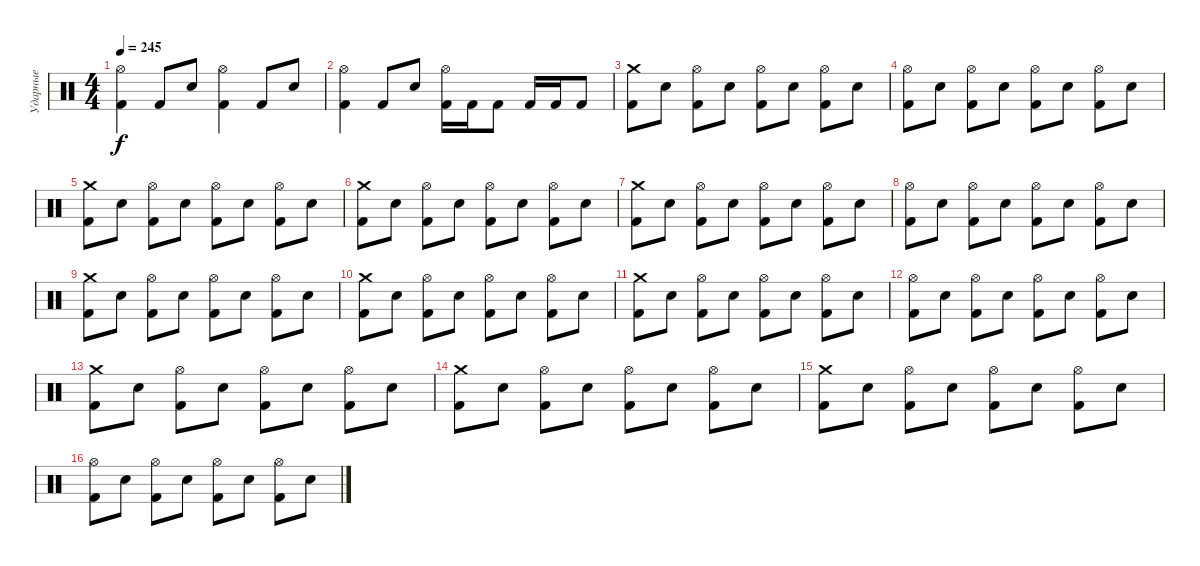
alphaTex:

\track ("Ударные" "Ударные") {instrument percussion}
\staff {score}
\articulation defaults
\ts (4 4)
\tempo 245
\clef neutral
\ks c
("Hi-Hat (open)" "Kick (hit) 2").4{dy f} "Kick (hit) 2".8 "Snare (hit) 2".8 ("Hi-Hat (open)" "Kick (hit) 2").4 "Kick (hit) 2".8 "Snare (hit) 2".8 |
("Hi-Hat (open)" "Kick (hit) 2").4 "Kick (hit) 2".8 "Snare (hit) 2".8 ("Hi-Hat (open)" "Kick (hit) 2").16 "Kick (hit) 2".16 "Kick (hit) 2".8 "Kick (hit) 2".16 "Kick (hit) 2".16 "Kick (hit) 2".8 |
("Crash medium (hit)" "Kick (hit) 2").8 "Snare (hit) 2".8 ("Hi-Hat (open)" "Kick (hit) 2").8 "Snare (hit) 2".8 ("Hi-Hat (open)" "Kick (hit) 2").8 "Snare (hit) 2".8 ("Hi-Hat (open)" "Kick (hit) 2").8 "Snare (hit) 2".8 |
("Hi-Hat (open)" "Kick (hit) 2").8 "Snare (hit) 2".8 ("Hi-Hat (open)" "Kick (hit) 2").8 "Snare (hit) 2".8 ("Hi-Hat (open)" "Kick (hit) 2").8 "Snare (hit) 2".8 ("Hi-Hat (open)" "Kick (hit) 2").8 "Snare (hit) 2".8 |
("Crash medium (hit)" "Kick (hit) 2").8 "Snare (hit) 2".8 ("Hi-Hat (open)" "Kick (hit) 2").8 "Snare (hit) 2".8 ("Hi-Hat (open)" "Kick (hit) 2").8 "Snare (hit) 2".8 ("Hi-Hat (open)" "Kick (hit) 2").8 "Snare (hit) 2".8 |
("Crash medium (hit)" "Kick (hit) 2").8 "Snare (hit) 2".8 ("Hi-Hat (open)" "Kick (hit) 2").8 "Snare (hit) 2".8 ("Hi-Hat (open)" "Kick (hit) 2").8 "Snare (hit) 2".8 ("Hi-Hat (open)" "Kick (hit) 2").8 "Snare (hit) 2".8 |
("Crash medium (hit)" "Kick (hit) 2").8 "Snare (hit) 2".8 ("Hi-Hat (open)" "Kick (hit) 2").8 "Snare (hit) 2".8 ("Hi-Hat (open)" "Kick (hit) 2").8 "Snare (hit) 2".8 ("Hi-Hat (open)" "Kick (hit) 2").8 "Snare (hit) 2".8 |
("Hi-Hat (open)" "Kick (hit) 2").8 "Snare (hit) 2".8 ("Hi-Hat (open)" "Kick (hit) 2").8 "Snare (hit) 2".8 ("Hi-Hat (open)" "Kick (hit) 2").8 "Snare (hit) 2".8 ("Hi-Hat (open)" "Kick (hit) 2").8 "Snare (hit) 2".8 |
("Crash medium (hit)" "Kick (hit) 2").8 "Snare (hit) 2".8 ("Hi-Hat (open)" "Kick (hit) 2").8 "Snare (hit) 2".8 ("Hi-Hat (open)" "Kick (hit) 2").8 "Snare (hit) 2".8 ("Hi-Hat (open)" "Kick (hit) 2").8 "Snare (hit) 2".8 |
("Crash medium (hit)" "Kick (hit) 2").8 "Snare (hit) 2".8 ("Hi-Hat (open)" "Kick (hit) 2").8 "Snare (hit) 2".8 ("Hi-Hat (open)" "Kick (hit) 2").8 "Snare (hit) 2".8 ("Hi-Hat (open)" "Kick (hit) 2").8 "Snare (hit) 2".8 |
("Crash medium (hit)" "Kick (hit) 2").8 "Snare (hit) 2".8 ("Hi-Hat (open)" "Kick (hit) 2").8 "Snare (hit) 2".8 ("Hi-Hat (open)" "Kick (hit) 2").8 "Snare (hit) 2".8 ("Hi-Hat (open)" "Kick (hit) 2").8 "Snare (hit) 2".8 |
("Hi-Hat (open)" "Kick (hit) 2").8 "Snare (hit) 2".8 ("Hi-Hat (open)" "Kick (hit) 2").8 "Snare (hit) 2".8 ("Hi-Hat (open)" "Kick (hit) 2").8 "Snare (hit) 2".8 ("Hi-Hat (open)" "Kick (hit) 2").8 "Snare (hit) 2".8 |
("Crash medium (hit)" "Kick (hit) 2").8 "Snare (hit) 2".8 ("Hi-Hat (open)" "Kick (hit) 2").8 "Snare (hit) 2".8 ("Hi-Hat (open)" "Kick (hit) 2").8 "Snare (hit) 2".8 ("Hi-Hat (open)" "Kick (hit) 2").8 "Snare (hit) 2".8 |
("Crash medium (hit)" "Kick (hit) 2").8 "Snare (hit) 2".8 ("Hi-Hat (open)" "Kick (hit) 2").8 "Snare (hit) 2".8 ("Hi-Hat (open)" "Kick (hit) 2").8 "Snare (hit) 2".8 ("Hi-Hat (open)" "Kick (hit) 2").8 "Snare (hit) 2".8 |
("Crash medium (hit)" "Kick (hit) 2").8 "Snare (hit) 2".8 ("Hi-Hat (open)" "Kick (hit) 2").8 "Snare (hit) 2".8 ("Hi-Hat (open)" "Kick (hit) 2").8 "Snare (hit) 2".8 ("Hi-Hat (open)" "Kick (hit) 2").8 "Snare (hit) 2".8 |
("Hi-Hat (open)" "Kick (hit) 2").8 "Snare (hit) 2".8 ("Hi-Hat (open)" "Kick (hit) 2").8 "Snare (hit) 2".8 ("Hi-Hat (open)" "Kick (hit) 2").8 "Snare (hit) 2".8 ("Hi-Hat (open)" "Kick (hit) 2").8 "Snare (hit) 2".8
